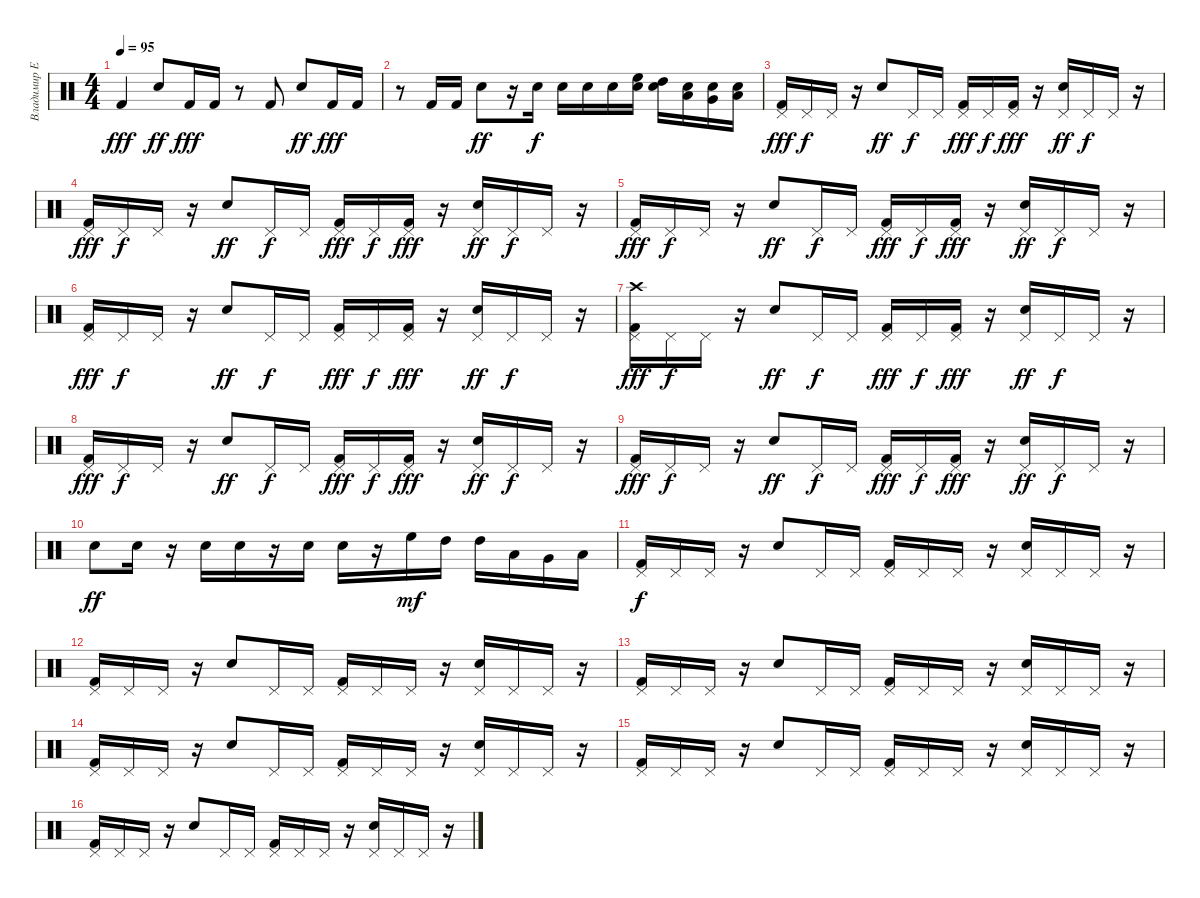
\track ("Владимир Ермаков" "Владимир Е") {instrument percussion}
\staff {score}
\articulation defaults
\ts (4 4)
\tempo 95
\clef neutral
\ks c "Kick (hit) 2".4{dy fff} "Electric Snare (hit)".8{dy ff} "Kick (hit) 2".16{dy fff} "Kick (hit) 2".16
r.8 "Kick (hit) 2".8 "Electric Snare (hit)".8{dy ff} "Kick (hit) 2".16{dy fff} "Kick (hit) 2".16 |
r.8 "Kick (hit) 2".16 "Kick (hit) 2".16 "Electric Snare (hit)".8{dy ff} r.16 "Electric Snare (hit)".16{dy f} "Electric Snare (hit)".16 "Electric Snare (hit)".16 "Electric Snare (hit)".16 ("High Floor Tom (hit)" "Electric Snare (hit)").16 ("High Tom (hit)" "Electric Snare (hit)").16 ("Low Tom (hit)" "Electric Snare (hit)").16 ("Very Low Tom (hit)" "Electric Snare (hit)").16 ("Low Floor Tom (hit)" "Electric Snare (hit)").16 |
("Kick (hit) 2" "Pedal Hi-Hat (hit)").16{dy fff} "Pedal Hi-Hat (hit)".16{dy f} "Pedal Hi-Hat (hit)".16 r.16 "Electric Snare (hit)".8{dy ff} "Pedal Hi-Hat (hit)".16{dy f} "Pedal Hi-Hat (hit)".16 ("Kick (hit) 2" "Pedal Hi-Hat (hit)").16{dy fff} "Pedal Hi-Hat (hit)".16{dy f} ("Kick (hit) 2" "Pedal Hi-Hat (hit)").16{dy fff} r.16 ("Electric Snare (hit)" "Pedal Hi-Hat (hit)").16{dy ff} "Pedal Hi-Hat (hit)".16{dy f} "Pedal Hi-Hat (hit)".16 r.16 |
("Kick (hit) 2" "Pedal Hi-Hat (hit)").16{dy fff} "Pedal Hi-Hat (hit)".16{dy f} "Pedal Hi-Hat (hit)".16 r.16 "Electric Snare (hit)".8{dy ff} "Pedal Hi-Hat (hit)".16{dy f} "Pedal Hi-Hat (hit)".16 ("Kick (hit) 2" "Pedal Hi-Hat (hit)").16{dy fff} "Pedal Hi-Hat (hit)".16{dy f} ("Kick (hit) 2" "Pedal Hi-Hat (hit)").16{dy fff} r.16 ("Electric Snare (hit)" "Pedal Hi-Hat (hit)").16{dy ff} "Pedal Hi-Hat (hit)".16{dy f} "Pedal Hi-Hat (hit)".16 r.16 |
("Kick (hit) 2" "Pedal Hi-Hat (hit)").16{dy fff} "Pedal Hi-Hat (hit)".16{dy f} "Pedal Hi-Hat (hit)".16 r.16 "Electric Snare (hit)".8{dy ff} "Pedal Hi-Hat (hit)".16{dy f} "Pedal Hi-Hat (hit)".16 ("Kick (hit) 2" "Pedal Hi-Hat (hit)").16{dy fff} "Pedal Hi-Hat (hit)".16{dy f} ("Kick (hit) 2" "Pedal Hi-Hat (hit)").16{dy fff} r.16 ("Electric Snare (hit)" "Pedal Hi-Hat (hit)").16{dy ff} "Pedal Hi-Hat (hit)".16{dy f} "Pedal Hi-Hat (hit)".16 r.16 |
("Kick (hit) 2" "Pedal Hi-Hat (hit)").16{dy fff} "Pedal Hi-Hat (hit)".16{dy f} "Pedal Hi-Hat (hit)".16 r.16 "Electric Snare (hit)".8{dy ff} "Pedal Hi-Hat (hit)".16{dy f} "Pedal Hi-Hat (hit)".16 ("Kick (hit) 2" "Pedal Hi-Hat (hit)").16{dy fff} "Pedal Hi-Hat (hit)".16{dy f} ("Kick (hit) 2" "Pedal Hi-Hat (hit)").16{dy fff} r.16 ("Electric Snare (hit)" "Pedal Hi-Hat (hit)").16{dy ff} "Pedal Hi-Hat (hit)".16{dy f} "Pedal Hi-Hat (hit)".16 r.16 |
("Crash high (hit)" "Kick (hit) 2" "Pedal Hi-Hat (hit)").16{dy fff} "Pedal Hi-Hat (hit)".16{dy f} "Pedal Hi-Hat (hit)".16 r.16 "Electric Snare (hit)".8{dy ff} "Pedal Hi-Hat (hit)".16{dy f} "Pedal Hi-Hat (hit)".16 ("Kick (hit) 2" "Pedal Hi-Hat (hit)").16{dy fff} "Pedal Hi-Hat (hit)".16{dy f} ("Kick (hit) 2" "Pedal Hi-Hat (hit)").16{dy fff} r.16 ("Electric Snare (hit)" "Pedal Hi-Hat (hit)").16{dy ff} "Pedal Hi-Hat (hit)".16{dy f} "Pedal Hi-Hat (hit)".16 r.16 |
("Kick (hit) 2" "Pedal Hi-Hat (hit)").16{dy fff} "Pedal Hi-Hat (hit)".16{dy f} "Pedal Hi-Hat (hit)".16 r.16 "Electric Snare (hit)".8{dy ff} "Pedal Hi-Hat (hit)".16{dy f} "Pedal Hi-Hat (hit)".16 ("Kick (hit) 2" "Pedal Hi-Hat (hit)").16{dy fff} "Pedal Hi-Hat (hit)".16{dy f} ("Kick (hit) 2" "Pedal Hi-Hat (hit)").16{dy fff} r.16 ("Electric Snare (hit)" "Pedal Hi-Hat (hit)").16{dy ff} "Pedal Hi-Hat (hit)".16{dy f} "Pedal Hi-Hat (hit)".16 r.16 |
("Kick (hit) 2" "Pedal Hi-Hat (hit)").16{dy fff} "Pedal Hi-Hat (hit)".16{dy f} "Pedal Hi-Hat (hit)".16 r.16 "Electric Snare (hit)".8{dy ff} "Pedal Hi-Hat (hit)".16{dy f} "Pedal Hi-Hat (hit)".16 ("Kick (hit) 2" "Pedal Hi-Hat (hit)").16{dy fff} "Pedal Hi-Hat (hit)".16{dy f} ("Kick (hit) 2" "Pedal Hi-Hat (hit)").16{dy fff} r.16 ("Electric Snare (hit)" "Pedal Hi-Hat (hit)").16{dy ff} "Pedal Hi-Hat (hit)".16{dy f} "Pedal Hi-Hat (hit)".16 r.16 |
"Electric Snare (hit)".8{dy ff} "Electric Snare (hit)".16 r.16 "Electric Snare (hit)".16 "Electric Snare (hit)".16 r.16 "Electric Snare (hit)".16 "Electric Snare (hit)".16 r.16 "High Floor Tom (hit)".16{dy mf} "High Tom (hit)".16 "High Tom (hit)".16 "Low Tom (hit)".16 "Very Low Tom (hit)".16 "Low Floor Tom (hit)".16 |
("Kick (hit) 2" "Pedal Hi-Hat (hit)").16{dy f} "Pedal Hi-Hat (hit)".16 "Pedal Hi-Hat (hit)".16 r.16 "Electric Snare (hit)".8 "Pedal Hi-Hat (hit)".16 "Pedal Hi-Hat (hit)".16 ("Kick (hit) 2" "Pedal Hi-Hat (hit)").16 "Pedal Hi-Hat (hit)".16 "Pedal Hi-Hat (hit)".16 r.16 ("Electric Snare (hit)" "Pedal Hi-Hat (hit)").16 "Pedal Hi-Hat (hit)".16 "Pedal Hi-Hat (hit)".16 r.16 |
("Kick (hit) 2" "Pedal Hi-Hat (hit)").16 "Pedal Hi-Hat (hit)".16 "Pedal Hi-Hat (hit)".16 r.16 "Electric Snare (hit)".8 "Pedal Hi-Hat (hit)".16 "Pedal Hi-Hat (hit)".16 ("Kick (hit) 2" "Pedal Hi-Hat (hit)").16 "Pedal Hi-Hat (hit)".16 "Pedal Hi-Hat (hit)".16 r.16 ("Electric Snare (hit)" "Pedal Hi-Hat (hit)").16 "Pedal Hi-Hat (hit)".16 "Pedal Hi-Hat (hit)".16 r.16 |
("Kick (hit) 2" "Pedal Hi-Hat (hit)").16 "Pedal Hi-Hat (hit)".16 "Pedal Hi-Hat (hit)".16 r.16 "Electric Snare (hit)".8 "Pedal Hi-Hat (hit)".16 "Pedal Hi-Hat (hit)".16 ("Kick (hit) 2" "Pedal Hi-Hat (hit)").16 "Pedal Hi-Hat (hit)".16 "Pedal Hi-Hat (hit)".16 r.16 ("Electric Snare (hit)" "Pedal Hi-Hat (hit)").16 "Pedal Hi-Hat (hit)".16 "Pedal Hi-Hat (hit)".16 r.16 |
("Kick (hit) 2" "Pedal Hi-Hat (hit)").16 "Pedal Hi-Hat (hit)".16 "Pedal Hi-Hat (hit)".16 r.16 "Electric Snare (hit)".8 "Pedal Hi-Hat (hit)".16 "Pedal Hi-Hat (hit)".16 ("Kick (hit) 2" "Pedal Hi-Hat (hit)").16 "Pedal Hi-Hat (hit)".16 "Pedal Hi-Hat (hit)".16 r.16 ("Electric Snare (hit)" "Pedal Hi-Hat (hit)").16 "Pedal Hi-Hat (hit)".16 "Pedal Hi-Hat (hit)".16 r.16 |
("Kick (hit) 2" "Pedal Hi-Hat (hit)").16 "Pedal Hi-Hat (hit)".16 "Pedal Hi-Hat (hit)".16 r.16 "Electric Snare (hit)".8 "Pedal Hi-Hat (hit)".16 "Pedal Hi-Hat (hit)".16 ("Kick (hit) 2" "Pedal Hi-Hat (hit)").16 "Pedal Hi-Hat (hit)".16 "Pedal Hi-Hat (hit)".16 r.16 ("Electric Snare (hit)" "Pedal Hi-Hat (hit)").16 "Pedal Hi-Hat (hit)".16 "Pedal Hi-Hat (hit)".16 r.16 |
("Kick (hit) 2" "Pedal Hi-Hat (hit)").16 "Pedal Hi-Hat (hit)".16 "Pedal Hi-Hat (hit)".16 r.16 "Electric Snare (hit)".8 "Pedal Hi-Hat (hit)".16 "Pedal Hi-Hat (hit)".16 ("Kick (hit) 2" "Pedal Hi-Hat (hit)").16 "Pedal Hi-Hat (hit)".16 "Pedal Hi-Hat (hit)".16 r.16 ("Electric Snare (hit)" "Pedal Hi-Hat (hit)").16 "Pedal Hi-Hat (hit)".16 "Pedal Hi-Hat (hit)".16 r.16
